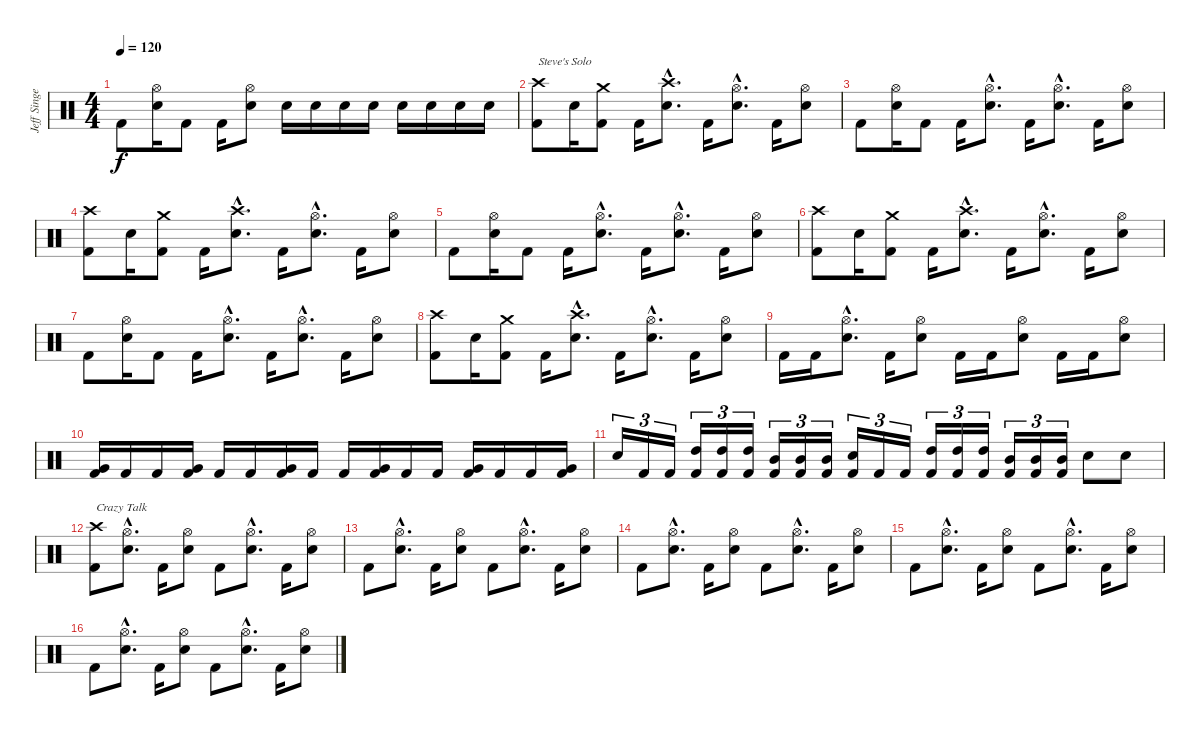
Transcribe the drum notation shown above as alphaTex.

\track ("Jeff Singer" "Jeff Singe") {instrument percussion}
\staff {score}
\articulation defaults
\ts (4 4)
\tempo 120
\clef neutral
\ks c "Kick (hit) 2".8{dy f}
("Hi-Hat (open)" "Snare (hit) 2").16 "Kick (hit) 2".8 "Kick (hit) 2".16 ("Hi-Hat (open)" "Snare (hit) 2").8 "Snare (hit) 2".16 "Snare (hit) 2".16 "Snare (hit) 2".16 "Snare (hit) 2".16 "Snare (hit) 2".16 "Snare (hit) 2".16 "Snare (hit) 2".16 "Snare (hit) 2".16 |
("Crash high (hit)" "Kick (hit) 2").8{txt "Steve's Solo"} "Snare (hit) 2".16 ("Crash medium (hit)" "Kick (hit) 2").8 "Kick (hit) 2".16 ("Crash high (hit)"{hac} "Snare (hit) 2"{hac}).8{d} "Kick (hit) 2".16 ("Hi-Hat (open)"{hac} "Snare (hit) 2"{hac}).8{d} "Kick (hit) 2".16 ("Hi-Hat (open)" "Snare (hit) 2").8 |
"Kick (hit) 2".8 ("Hi-Hat (open)" "Snare (hit) 2").16 "Kick (hit) 2".8 "Kick (hit) 2".16 ("Hi-Hat (open)"{hac} "Snare (hit) 2"{hac}).8{d} "Kick (hit) 2".16 ("Hi-Hat (open)"{hac} "Snare (hit) 2"{hac}).8{d} "Kick (hit) 2".16 ("Hi-Hat (open)" "Snare (hit) 2").8 |
("Crash high (hit)" "Kick (hit) 2").8 "Snare (hit) 2".16 ("Crash medium (hit)" "Kick (hit) 2").8 "Kick (hit) 2".16 ("Crash high (hit)"{hac} "Snare (hit) 2"{hac}).8{d} "Kick (hit) 2".16 ("Hi-Hat (open)"{hac} "Snare (hit) 2"{hac}).8{d} "Kick (hit) 2".16 ("Hi-Hat (open)" "Snare (hit) 2").8 |
"Kick (hit) 2".8 ("Hi-Hat (open)" "Snare (hit) 2").16 "Kick (hit) 2".8 "Kick (hit) 2".16 ("Hi-Hat (open)"{hac} "Snare (hit) 2"{hac}).8{d} "Kick (hit) 2".16 ("Hi-Hat (open)"{hac} "Snare (hit) 2"{hac}).8{d} "Kick (hit) 2".16 ("Hi-Hat (open)" "Snare (hit) 2").8 |
("Crash high (hit)" "Kick (hit) 2").8 "Snare (hit) 2".16 ("Crash medium (hit)" "Kick (hit) 2").8 "Kick (hit) 2".16 ("Crash high (hit)"{hac} "Snare (hit) 2"{hac}).8{d} "Kick (hit) 2".16 ("Hi-Hat (open)"{hac} "Snare (hit) 2"{hac}).8{d} "Kick (hit) 2".16 ("Hi-Hat (open)" "Snare (hit) 2").8 |
"Kick (hit) 2".8 ("Hi-Hat (open)" "Snare (hit) 2").16 "Kick (hit) 2".8 "Kick (hit) 2".16 ("Hi-Hat (open)"{hac} "Snare (hit) 2"{hac}).8{d} "Kick (hit) 2".16 ("Hi-Hat (open)"{hac} "Snare (hit) 2"{hac}).8{d} "Kick (hit) 2".16 ("Hi-Hat (open)" "Snare (hit) 2").8 |
("Crash high (hit)" "Kick (hit) 2").8 "Snare (hit) 2".16 ("Crash medium (hit)" "Kick (hit) 2").8 "Kick (hit) 2".16 ("Crash high (hit)"{hac} "Snare (hit) 2"{hac}).8{d} "Kick (hit) 2".16 ("Hi-Hat (open)"{hac} "Snare (hit) 2"{hac}).8{d} "Kick (hit) 2".16 ("Hi-Hat (open)" "Snare (hit) 2").8 |
"Kick (hit) 2".16 "Kick (hit) 2".16 ("Hi-Hat (open)"{hac} "Snare (hit) 2"{hac}).8{d} "Kick (hit) 2".16 ("Hi-Hat (open)" "Snare (hit) 2").8 "Kick (hit) 2".16 "Kick (hit) 2".16 ("Hi-Hat (open)" "Snare (hit) 2").8 "Kick (hit) 2".16 "Kick (hit) 2".16 ("Hi-Hat (open)" "Snare (hit) 2").8 |
("Very Low Tom (hit)" "Kick (hit) 2").16 "Kick (hit) 2".16 "Kick (hit) 2".16 ("Very Low Tom (hit)" "Kick (hit) 2").16 "Kick (hit) 2".16 "Kick (hit) 2".16 ("Very Low Tom (hit)" "Kick (hit) 2").16 "Kick (hit) 2".16 "Kick (hit) 2".16 ("Very Low Tom (hit)" "Kick (hit) 2").16 "Kick (hit) 2".16 "Kick (hit) 2".16 ("Very Low Tom (hit)" "Kick (hit) 2").16 "Kick (hit) 2".16 "Kick (hit) 2".16 ("Very Low Tom (hit)" "Kick (hit) 2").16 |
"Snare (hit) 2".16{tu (3 2)} "Kick (hit) 2".16{tu (3 2)} "Kick (hit) 2".16{tu (3 2)} ("High Tom (hit)" "Kick (hit) 2").16{tu (3 2)} ("High Tom (hit)" "Kick (hit) 2").16{tu (3 2)} ("High Tom (hit)" "Kick (hit) 2").16{tu (3 2)} ("Mid Tom (hit)" "Kick (hit) 2").16{tu (3 2)} ("Mid Tom (hit)" "Kick (hit) 2").16{tu (3 2)} ("Mid Tom (hit)" "Kick (hit) 2").16{tu (3 2)} ("Snare (hit) 2" "Kick (hit) 2").16{tu (3 2)} "Kick (hit) 2".16{tu (3 2)} "Kick (hit) 2".16{tu (3 2)} ("High Tom (hit)" "Kick (hit) 2").16{tu (3 2)} ("High Tom (hit)" "Kick (hit) 2").16{tu (3 2)} ("High Tom (hit)" "Kick (hit) 2").16{tu (3 2)} ("Mid Tom (hit)" "Kick (hit) 2").16{tu (3 2)} ("Mid Tom (hit)" "Kick (hit) 2").16{tu (3 2)} ("Mid Tom (hit)" "Kick (hit) 2").16{tu (3 2)} "Snare (hit) 2".8 "Snare (hit) 2".8 |
("Crash high (hit)" "Kick (hit) 2").8{txt "Crazy Talk"} ("Hi-Hat (open)"{hac} "Snare (hit) 2"{hac}).8{d} "Kick (hit) 2".16 ("Hi-Hat (open)" "Snare (hit) 2").8 "Kick (hit) 2".8 ("Hi-Hat (open)"{hac} "Snare (hit) 2"{hac}).8{d} "Kick (hit) 2".16 ("Hi-Hat (open)" "Snare (hit) 2").8 |
"Kick (hit) 2".8 ("Hi-Hat (open)"{hac} "Snare (hit) 2"{hac}).8{d} "Kick (hit) 2".16 ("Hi-Hat (open)" "Snare (hit) 2").8 "Kick (hit) 2".8 ("Hi-Hat (open)"{hac} "Snare (hit) 2"{hac}).8{d} "Kick (hit) 2".16 ("Hi-Hat (open)" "Snare (hit) 2").8 |
"Kick (hit) 2".8 ("Hi-Hat (open)"{hac} "Snare (hit) 2"{hac}).8{d} "Kick (hit) 2".16 ("Hi-Hat (open)" "Snare (hit) 2").8 "Kick (hit) 2".8 ("Hi-Hat (open)"{hac} "Snare (hit) 2"{hac}).8{d} "Kick (hit) 2".16 ("Hi-Hat (open)" "Snare (hit) 2").8 |
"Kick (hit) 2".8 ("Hi-Hat (open)"{hac} "Snare (hit) 2"{hac}).8{d} "Kick (hit) 2".16 ("Hi-Hat (open)" "Snare (hit) 2").8 "Kick (hit) 2".8 ("Hi-Hat (open)"{hac} "Snare (hit) 2"{hac}).8{d} "Kick (hit) 2".16 ("Hi-Hat (open)" "Snare (hit) 2").8 |
"Kick (hit) 2".8 ("Hi-Hat (open)"{hac} "Snare (hit) 2"{hac}).8{d} "Kick (hit) 2".16 ("Hi-Hat (open)" "Snare (hit) 2").8 "Kick (hit) 2".8 ("Hi-Hat (open)"{hac} "Snare (hit) 2"{hac}).8{d} "Kick (hit) 2".16 ("Hi-Hat (open)" "Snare (hit) 2").8
